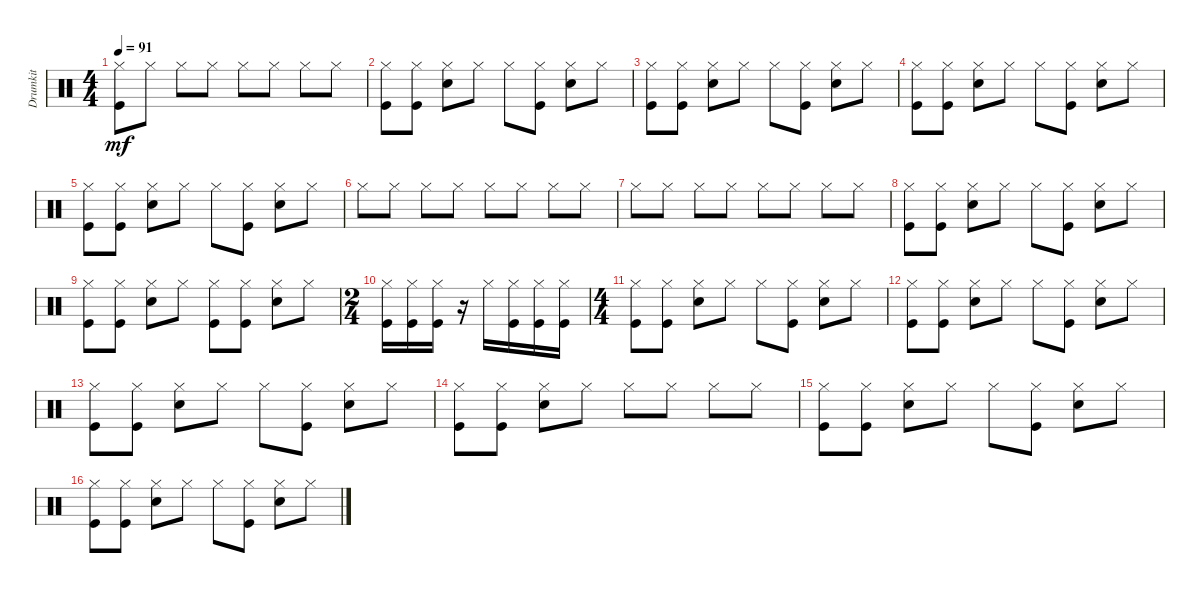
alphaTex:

\track ("Drumkit" "Drumkit") {instrument percussion}
\staff {score}
\articulation defaults
\ts (4 4)
\tempo 91
\clef neutral
\ks c
("Kick (hit)" "Hi-Hat (closed)").8{dy mf} "Hi-Hat (closed)".8 "Hi-Hat (closed)".8 "Hi-Hat (closed)".8 "Hi-Hat (closed)".8 "Hi-Hat (closed)".8 "Hi-Hat (closed)".8 "Hi-Hat (closed)".8 |
("Kick (hit)" "Hi-Hat (closed)").8 ("Kick (hit)" "Hi-Hat (closed)").8 ("Hi-Hat (closed)" "Snare (hit) 2").8 "Hi-Hat (closed)".8 "Hi-Hat (closed)".8 ("Kick (hit)" "Hi-Hat (closed)").8 ("Hi-Hat (closed)" "Snare (hit) 2").8 "Hi-Hat (closed)".8 |
("Kick (hit)" "Hi-Hat (closed)").8 ("Kick (hit)" "Hi-Hat (closed)").8 ("Hi-Hat (closed)" "Snare (hit) 2").8 "Hi-Hat (closed)".8 "Hi-Hat (closed)".8 ("Kick (hit)" "Hi-Hat (closed)").8 ("Hi-Hat (closed)" "Snare (hit) 2").8 "Hi-Hat (closed)".8 |
("Kick (hit)" "Hi-Hat (closed)").8 ("Kick (hit)" "Hi-Hat (closed)").8 ("Hi-Hat (closed)" "Snare (hit) 2").8 "Hi-Hat (closed)".8 "Hi-Hat (closed)".8 ("Kick (hit)" "Hi-Hat (closed)").8 ("Hi-Hat (closed)" "Snare (hit) 2").8 "Hi-Hat (closed)".8 |
("Kick (hit)" "Hi-Hat (closed)").8 ("Kick (hit)" "Hi-Hat (closed)").8 ("Hi-Hat (closed)" "Snare (hit) 2").8 "Hi-Hat (closed)".8 "Hi-Hat (closed)".8 ("Kick (hit)" "Hi-Hat (closed)").8 ("Hi-Hat (closed)" "Snare (hit) 2").8 "Hi-Hat (closed)".8 |
"Hi-Hat (closed)".8 "Hi-Hat (closed)".8 "Hi-Hat (closed)".8 "Hi-Hat (closed)".8 "Hi-Hat (closed)".8 "Hi-Hat (closed)".8 "Hi-Hat (closed)".8 "Hi-Hat (closed)".8 |
"Hi-Hat (closed)".8 "Hi-Hat (closed)".8 "Hi-Hat (closed)".8 "Hi-Hat (closed)".8 "Hi-Hat (closed)".8 "Hi-Hat (closed)".8 "Hi-Hat (closed)".8 "Hi-Hat (closed)".8 |
("Kick (hit)" "Hi-Hat (closed)").8 ("Kick (hit)" "Hi-Hat (closed)").8 ("Hi-Hat (closed)" "Snare (hit) 2").8 "Hi-Hat (closed)".8 "Hi-Hat (closed)".8 ("Kick (hit)" "Hi-Hat (closed)").8 ("Hi-Hat (closed)" "Snare (hit) 2").8 "Hi-Hat (closed)".8 |
("Kick (hit)" "Hi-Hat (closed)").8 ("Kick (hit)" "Hi-Hat (closed)").8 ("Hi-Hat (closed)" "Snare (hit) 2").8 "Hi-Hat (closed)".8 ("Hi-Hat (closed)" "Kick (hit)").8 ("Kick (hit)" "Hi-Hat (closed)").8 ("Hi-Hat (closed)" "Snare (hit) 2").8 "Hi-Hat (closed)".8 |
\ts (2 4)
("Kick (hit)" "Hi-Hat (closed)").16 ("Kick (hit)" "Hi-Hat (closed)").16 ("Kick (hit)" "Hi-Hat (closed)").16 r.16 "Hi-Hat (closed)".16 ("Kick (hit)" "Hi-Hat (closed)").16 ("Kick (hit)" "Hi-Hat (closed)").16 ("Kick (hit)" "Hi-Hat (closed)").16 |
\ts (4 4)
("Kick (hit)" "Hi-Hat (closed)").8 ("Kick (hit)" "Hi-Hat (closed)").8 ("Hi-Hat (closed)" "Snare (hit) 2").8 "Hi-Hat (closed)".8 "Hi-Hat (closed)".8 ("Kick (hit)" "Hi-Hat (closed)").8 ("Hi-Hat (closed)" "Snare (hit) 2").8 "Hi-Hat (closed)".8 |
("Kick (hit)" "Hi-Hat (closed)").8 ("Kick (hit)" "Hi-Hat (closed)").8 ("Hi-Hat (closed)" "Snare (hit) 2").8 "Hi-Hat (closed)".8 "Hi-Hat (closed)".8 ("Kick (hit)" "Hi-Hat (closed)").8 ("Hi-Hat (closed)" "Snare (hit) 2").8 "Hi-Hat (closed)".8 |
("Kick (hit)" "Hi-Hat (closed)").8 ("Kick (hit)" "Hi-Hat (closed)").8 ("Hi-Hat (closed)" "Snare (hit) 2").8 "Hi-Hat (closed)".8 "Hi-Hat (closed)".8 ("Kick (hit)" "Hi-Hat (closed)").8 ("Hi-Hat (closed)" "Snare (hit) 2").8 "Hi-Hat (closed)".8 |
("Kick (hit)" "Hi-Hat (closed)").8 ("Kick (hit)" "Hi-Hat (closed)").8 ("Hi-Hat (closed)" "Snare (hit) 2").8 "Hi-Hat (closed)".8 "Hi-Hat (closed)".8 "Hi-Hat (closed)".8 "Hi-Hat (closed)".8 "Hi-Hat (closed)".8 |
("Kick (hit)" "Hi-Hat (closed)").8 ("Kick (hit)" "Hi-Hat (closed)").8 ("Hi-Hat (closed)" "Snare (hit) 2").8 "Hi-Hat (closed)".8 "Hi-Hat (closed)".8 ("Kick (hit)" "Hi-Hat (closed)").8 ("Hi-Hat (closed)" "Snare (hit) 2").8 "Hi-Hat (closed)".8 |
("Kick (hit)" "Hi-Hat (closed)").8 ("Kick (hit)" "Hi-Hat (closed)").8 ("Hi-Hat (closed)" "Snare (hit) 2").8 "Hi-Hat (closed)".8 "Hi-Hat (closed)".8 ("Kick (hit)" "Hi-Hat (closed)").8 ("Hi-Hat (closed)" "Snare (hit) 2").8 "Hi-Hat (closed)".8
